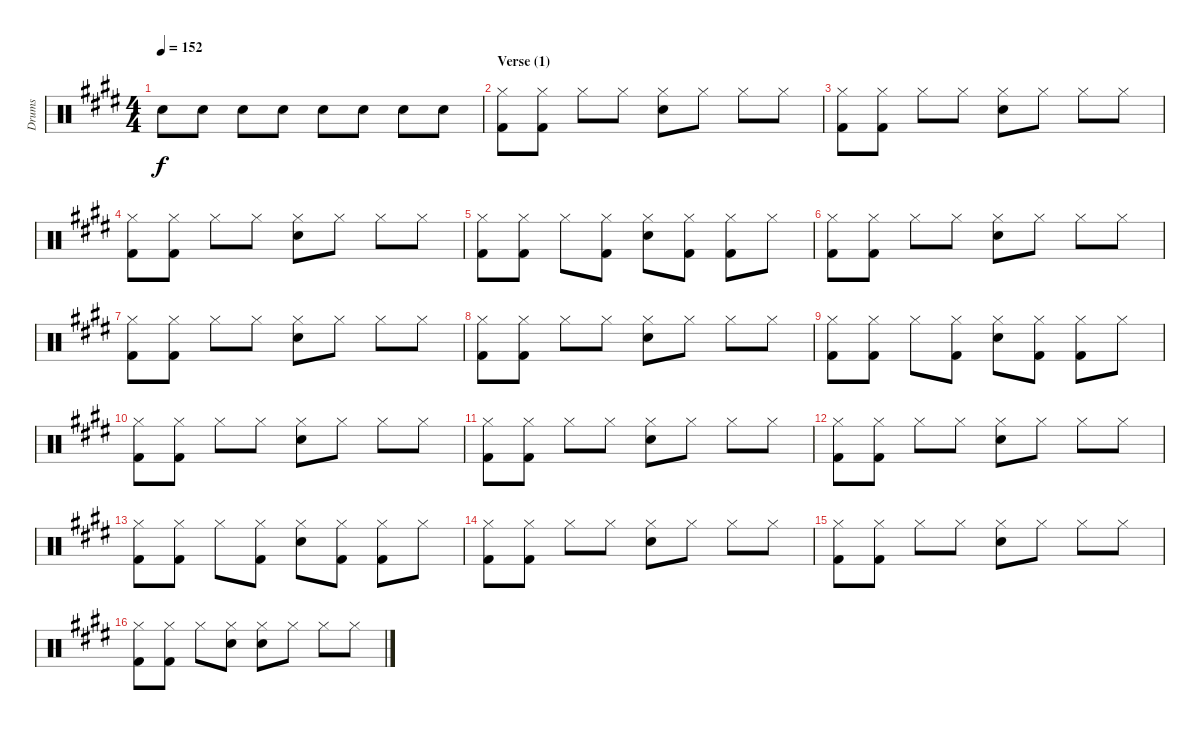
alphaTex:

\track ("Drums" "Drums") {instrument percussion}
\staff {score}
\articulation defaults
\ts (4 4)
\tempo 152
\clef neutral
\ks c#minor "Snare (hit) 2".8{dy f} "Snare (hit) 2".8 "Snare (hit) 2".8 "Snare (hit) 2".8 "Snare (hit) 2".8 "Snare (hit) 2".8 "Snare (hit) 2".8 "Snare (hit) 2".8
|
\section ("" "Verse (1)")
("Kick (hit) 2" "Hi-Hat (closed)").8 ("Hi-Hat (closed)" "Kick (hit) 2").8 "Hi-Hat (closed)".8 "Hi-Hat (closed)".8 ("Snare (hit) 2" "Hi-Hat (closed)").8 "Hi-Hat (closed)".8 "Hi-Hat (closed)".8 "Hi-Hat (closed)".8 |
("Kick (hit) 2" "Hi-Hat (closed)").8 ("Hi-Hat (closed)" "Kick (hit) 2").8 "Hi-Hat (closed)".8 "Hi-Hat (closed)".8 ("Snare (hit) 2" "Hi-Hat (closed)").8 "Hi-Hat (closed)".8 "Hi-Hat (closed)".8 "Hi-Hat (closed)".8 |
("Kick (hit) 2" "Hi-Hat (closed)").8 ("Hi-Hat (closed)" "Kick (hit) 2").8 "Hi-Hat (closed)".8 "Hi-Hat (closed)".8 ("Snare (hit) 2" "Hi-Hat (closed)").8 "Hi-Hat (closed)".8 "Hi-Hat (closed)".8 "Hi-Hat (closed)".8 |
("Kick (hit) 2" "Hi-Hat (closed)").8 ("Hi-Hat (closed)" "Kick (hit) 2").8 "Hi-Hat (closed)".8 ("Kick (hit) 2" "Hi-Hat (closed)").8 ("Snare (hit) 2" "Hi-Hat (closed)").8 ("Kick (hit) 2" "Hi-Hat (closed)").8 ("Kick (hit) 2" "Hi-Hat (closed)").8 "Hi-Hat (closed)".8 |
("Kick (hit) 2" "Hi-Hat (closed)").8 ("Hi-Hat (closed)" "Kick (hit) 2").8 "Hi-Hat (closed)".8 "Hi-Hat (closed)".8 ("Snare (hit) 2" "Hi-Hat (closed)").8 "Hi-Hat (closed)".8 "Hi-Hat (closed)".8 "Hi-Hat (closed)".8 |
("Kick (hit) 2" "Hi-Hat (closed)").8 ("Hi-Hat (closed)" "Kick (hit) 2").8 "Hi-Hat (closed)".8 "Hi-Hat (closed)".8 ("Snare (hit) 2" "Hi-Hat (closed)").8 "Hi-Hat (closed)".8 "Hi-Hat (closed)".8 "Hi-Hat (closed)".8 |
("Kick (hit) 2" "Hi-Hat (closed)").8 ("Hi-Hat (closed)" "Kick (hit) 2").8 "Hi-Hat (closed)".8 "Hi-Hat (closed)".8 ("Snare (hit) 2" "Hi-Hat (closed)").8 "Hi-Hat (closed)".8 "Hi-Hat (closed)".8 "Hi-Hat (closed)".8 |
("Kick (hit) 2" "Hi-Hat (closed)").8 ("Hi-Hat (closed)" "Kick (hit) 2").8 "Hi-Hat (closed)".8 ("Kick (hit) 2" "Hi-Hat (closed)").8 ("Snare (hit) 2" "Hi-Hat (closed)").8 ("Kick (hit) 2" "Hi-Hat (closed)").8 ("Kick (hit) 2" "Hi-Hat (closed)").8 "Hi-Hat (closed)".8 |
("Kick (hit) 2" "Hi-Hat (closed)").8 ("Hi-Hat (closed)" "Kick (hit) 2").8 "Hi-Hat (closed)".8 "Hi-Hat (closed)".8 ("Snare (hit) 2" "Hi-Hat (closed)").8 "Hi-Hat (closed)".8 "Hi-Hat (closed)".8 "Hi-Hat (closed)".8 |
("Kick (hit) 2" "Hi-Hat (closed)").8 ("Hi-Hat (closed)" "Kick (hit) 2").8 "Hi-Hat (closed)".8 "Hi-Hat (closed)".8 ("Snare (hit) 2" "Hi-Hat (closed)").8 "Hi-Hat (closed)".8 "Hi-Hat (closed)".8 "Hi-Hat (closed)".8 |
("Kick (hit) 2" "Hi-Hat (closed)").8 ("Hi-Hat (closed)" "Kick (hit) 2").8 "Hi-Hat (closed)".8 "Hi-Hat (closed)".8 ("Snare (hit) 2" "Hi-Hat (closed)").8 "Hi-Hat (closed)".8 "Hi-Hat (closed)".8 "Hi-Hat (closed)".8 |
("Kick (hit) 2" "Hi-Hat (closed)").8 ("Hi-Hat (closed)" "Kick (hit) 2").8 "Hi-Hat (closed)".8 ("Kick (hit) 2" "Hi-Hat (closed)").8 ("Snare (hit) 2" "Hi-Hat (closed)").8 ("Kick (hit) 2" "Hi-Hat (closed)").8 ("Kick (hit) 2" "Hi-Hat (closed)").8 "Hi-Hat (closed)".8 |
("Kick (hit) 2" "Hi-Hat (closed)").8 ("Hi-Hat (closed)" "Kick (hit) 2").8 "Hi-Hat (closed)".8 "Hi-Hat (closed)".8 ("Snare (hit) 2" "Hi-Hat (closed)").8 "Hi-Hat (closed)".8 "Hi-Hat (closed)".8 "Hi-Hat (closed)".8 |
("Kick (hit) 2" "Hi-Hat (closed)").8 ("Hi-Hat (closed)" "Kick (hit) 2").8 "Hi-Hat (closed)".8 "Hi-Hat (closed)".8 ("Snare (hit) 2" "Hi-Hat (closed)").8 "Hi-Hat (closed)".8 "Hi-Hat (closed)".8 "Hi-Hat (closed)".8 |
("Kick (hit) 2" "Hi-Hat (closed)").8 ("Hi-Hat (closed)" "Kick (hit) 2").8 "Hi-Hat (closed)".8 ("Snare (hit) 2" "Hi-Hat (closed)").8 ("Snare (hit) 2" "Hi-Hat (closed)").8 "Hi-Hat (closed)".8 "Hi-Hat (closed)".8 "Hi-Hat (closed)".8
